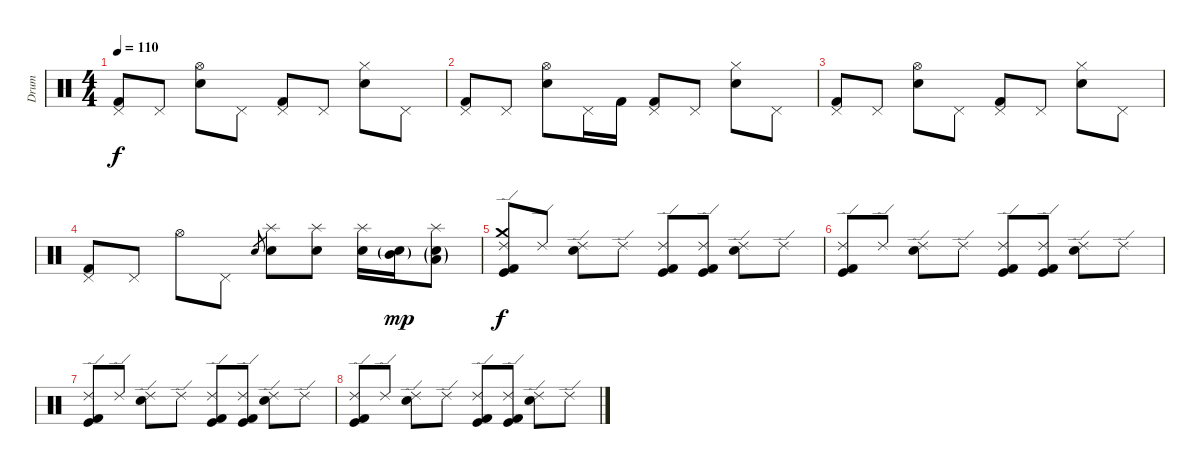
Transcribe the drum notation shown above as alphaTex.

\track ("Drum" "Drum") {instrument percussion}
\staff {score}
\articulation defaults
\ts (4 4)
\tempo 110
\clef neutral
\ks c
("Pedal Hi-Hat (hit)" "Kick (hit) 2").8{dy f} "Pedal Hi-Hat (hit)".8 ("Hi-Hat (open)" "Snare (hit) 2").8 "Pedal Hi-Hat (hit)".8 ("Pedal Hi-Hat (hit)" "Kick (hit) 2").8 "Pedal Hi-Hat (hit)".8 ("Hi-Hat (closed)" "Snare (hit) 2").8 "Pedal Hi-Hat (hit)".8 |
("Pedal Hi-Hat (hit)" "Kick (hit) 2").8 "Pedal Hi-Hat (hit)".8 ("Hi-Hat (open)" "Snare (hit) 2").8 "Pedal Hi-Hat (hit)".16 "Kick (hit) 2".16 ("Pedal Hi-Hat (hit)" "Kick (hit) 2").8 "Pedal Hi-Hat (hit)".8 ("Hi-Hat (closed)" "Snare (hit) 2").8 "Pedal Hi-Hat (hit)".8 |
("Pedal Hi-Hat (hit)" "Kick (hit) 2").8 "Pedal Hi-Hat (hit)".8 ("Hi-Hat (open)" "Snare (hit) 2").8 "Pedal Hi-Hat (hit)".8 ("Pedal Hi-Hat (hit)" "Kick (hit) 2").8 "Pedal Hi-Hat (hit)".8 ("Hi-Hat (closed)" "Snare (hit) 2").8 "Pedal Hi-Hat (hit)".8 |
("Pedal Hi-Hat (hit)" "Kick (hit) 2").8 "Pedal Hi-Hat (hit)".8 "Hi-Hat (open)".8 "Pedal Hi-Hat (hit)".8 "Electric Snare (hit)"{sl}.8{gr} ("Splash (hit)" "Electric Snare (hit)").8 ("Splash (hit)" "Electric Snare (hit)").8 ("Splash (hit)" "Electric Snare (hit)").16 ("Electric Snare (hit)"{g} "Mid Tom (hit)"{g}).16{dy mp} ("Splash (hit)" "Electric Snare (hit)"{g} "Low Tom (hit)"{g}).8 |
("Ride (edge) 2" "Crash medium (hit)" "Kick (hit)" "Kick (hit) 2").8{dy f} "Ride (edge) 2".8 ("Ride (edge) 2" "Electric Snare (hit)").8 "Ride (edge) 2".8 ("Ride (edge) 2" "Kick (hit)" "Kick (hit) 2").8 ("Ride (edge) 2" "Kick (hit)" "Kick (hit) 2").8 ("Ride (edge) 2" "Electric Snare (hit)").8 "Ride (edge) 2".8 |
("Ride (edge) 2" "Kick (hit)" "Kick (hit) 2").8 "Ride (edge) 2".8 ("Ride (edge) 2" "Electric Snare (hit)").8 "Ride (edge) 2".8 ("Ride (edge) 2" "Kick (hit)" "Kick (hit) 2").8 ("Ride (edge) 2" "Kick (hit)" "Kick (hit) 2").8 ("Ride (edge) 2" "Electric Snare (hit)").8 "Ride (edge) 2".8 |
("Ride (edge) 2" "Kick (hit)" "Kick (hit) 2").8 "Ride (edge) 2".8 ("Ride (edge) 2" "Electric Snare (hit)").8 "Ride (edge) 2".8 ("Ride (edge) 2" "Kick (hit)" "Kick (hit) 2").8 ("Ride (edge) 2" "Kick (hit)" "Kick (hit) 2").8 ("Ride (edge) 2" "Electric Snare (hit)").8 "Ride (edge) 2".8 |
("Ride (edge) 2" "Kick (hit)" "Kick (hit) 2").8 "Ride (edge) 2".8 ("Ride (edge) 2" "Electric Snare (hit)").8 "Ride (edge) 2".8 ("Ride (edge) 2" "Kick (hit)" "Kick (hit) 2").8 ("Ride (edge) 2" "Kick (hit)" "Kick (hit) 2").8 ("Ride (edge) 2" "Electric Snare (hit)").8 "Ride (edge) 2".8
